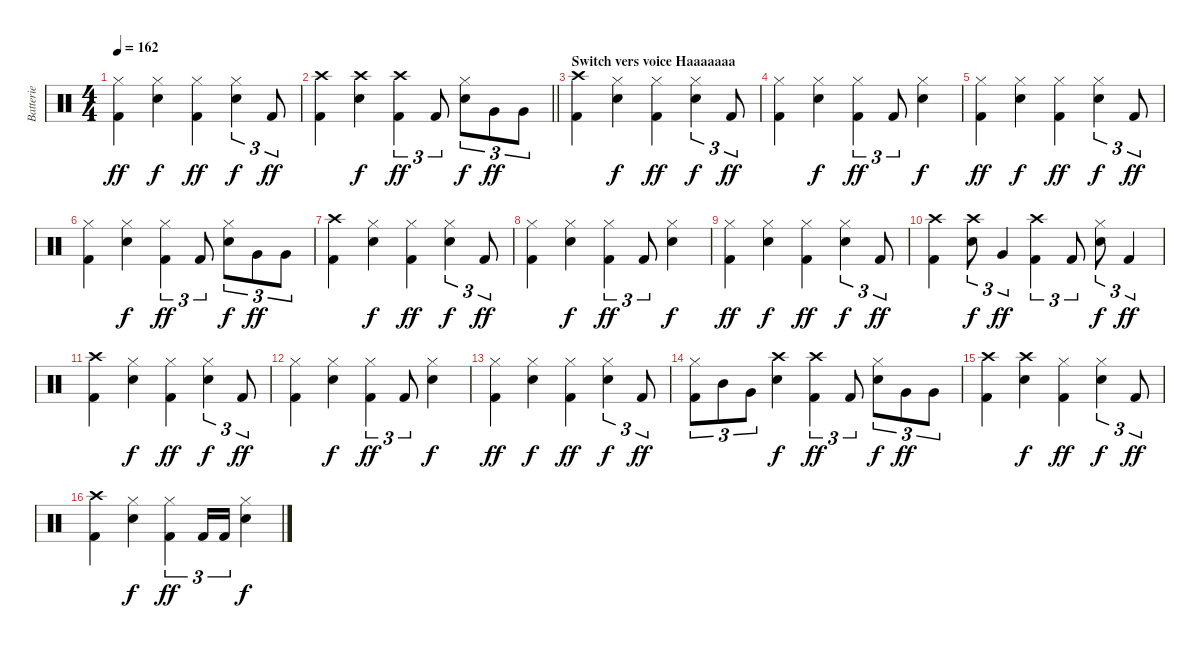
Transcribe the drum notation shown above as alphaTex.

\track ("Batterie" "Batterie") {instrument percussion}
\staff {score}
\articulation defaults
\ts (4 4)
\tempo 162
\clef neutral
\ks c
("Hi-Hat (closed)" "Kick (hit) 2").4{dy ff} ("Hi-Hat (closed)" "Snare (hit) 2").4{dy f} ("Hi-Hat (closed)" "Kick (hit) 2").4{dy ff} ("Hi-Hat (closed)" "Snare (hit) 2").4{tu (3 2) dy f} "Kick (hit) 2".8{tu (3 2) dy ff} |
\barLineRight lightlight
("Crash high (hit)" "Kick (hit) 2").4 ("Crash high (hit)" "Snare (hit) 2").4{dy f} ("Crash high (hit)" "Kick (hit) 2").4{tu (3 2) dy ff} "Kick (hit) 2".8{tu (3 2)} ("Hi-Hat (closed)" "Snare (hit) 2").8{tu (3 2) dy f} "Very Low Tom (hit)".8{tu (3 2) dy ff} "Very Low Tom (hit)".8{tu (3 2)} |
\section ("" "Switch vers voice Haaaaaaa")
("Crash high (hit)" "Kick (hit) 2").4 ("Hi-Hat (closed)" "Snare (hit) 2").4{dy f} ("Hi-Hat (closed)" "Kick (hit) 2").4{dy ff} ("Hi-Hat (closed)" "Snare (hit) 2").4{tu (3 2) dy f} "Kick (hit) 2".8{tu (3 2) dy ff} |
("Hi-Hat (closed)" "Kick (hit) 2").4 ("Hi-Hat (closed)" "Snare (hit) 2").4{dy f} ("Hi-Hat (closed)" "Kick (hit) 2").4{tu (3 2) dy ff} "Kick (hit) 2".8{tu (3 2)} ("Hi-Hat (closed)" "Snare (hit) 2").4{dy f} |
("Hi-Hat (closed)" "Kick (hit) 2").4{dy ff} ("Hi-Hat (closed)" "Snare (hit) 2").4{dy f} ("Hi-Hat (closed)" "Kick (hit) 2").4{dy ff} ("Hi-Hat (closed)" "Snare (hit) 2").4{tu (3 2) dy f} "Kick (hit) 2".8{tu (3 2) dy ff} |
("Hi-Hat (closed)" "Kick (hit) 2").4 ("Hi-Hat (closed)" "Snare (hit) 2").4{dy f} ("Hi-Hat (closed)" "Kick (hit) 2").4{tu (3 2) dy ff} "Kick (hit) 2".8{tu (3 2)} ("Hi-Hat (closed)" "Snare (hit) 2").8{tu (3 2) dy f} "Very Low Tom (hit)".8{tu (3 2) dy ff} "Very Low Tom (hit)".8{tu (3 2)} |
("Crash high (hit)" "Kick (hit) 2").4 ("Hi-Hat (closed)" "Snare (hit) 2").4{dy f} ("Hi-Hat (closed)" "Kick (hit) 2").4{dy ff} ("Hi-Hat (closed)" "Snare (hit) 2").4{tu (3 2) dy f} "Kick (hit) 2".8{tu (3 2) dy ff} |
("Hi-Hat (closed)" "Kick (hit) 2").4 ("Hi-Hat (closed)" "Snare (hit) 2").4{dy f} ("Hi-Hat (closed)" "Kick (hit) 2").4{tu (3 2) dy ff} "Kick (hit) 2".8{tu (3 2)} ("Hi-Hat (closed)" "Snare (hit) 2").4{dy f} |
("Hi-Hat (closed)" "Kick (hit) 2").4{dy ff} ("Hi-Hat (closed)" "Snare (hit) 2").4{dy f} ("Hi-Hat (closed)" "Kick (hit) 2").4{dy ff} ("Hi-Hat (closed)" "Snare (hit) 2").4{tu (3 2) dy f} "Kick (hit) 2".8{tu (3 2) dy ff} |
("Crash high (hit)" "Kick (hit) 2").4 ("Crash high (hit)" "Snare (hit) 2").8{tu (3 2) dy f} "Very Low Tom (hit)".4{tu (3 2) dy ff} ("Crash high (hit)" "Kick (hit) 2").4{tu (3 2)} "Kick (hit) 2".8{tu (3 2)} ("Hi-Hat (closed)" "Snare (hit) 2").8{tu (3 2) dy f} "Kick (hit) 2".4{tu (3 2) dy ff} |
("Crash high (hit)" "Kick (hit) 2").4 ("Hi-Hat (closed)" "Snare (hit) 2").4{dy f} ("Hi-Hat (closed)" "Kick (hit) 2").4{dy ff} ("Hi-Hat (closed)" "Snare (hit) 2").4{tu (3 2) dy f} "Kick (hit) 2".8{tu (3 2) dy ff} |
("Hi-Hat (closed)" "Kick (hit) 2").4 ("Hi-Hat (closed)" "Snare (hit) 2").4{dy f} ("Hi-Hat (closed)" "Kick (hit) 2").4{tu (3 2) dy ff} "Kick (hit) 2".8{tu (3 2)} ("Hi-Hat (closed)" "Snare (hit) 2").4{dy f} |
("Hi-Hat (closed)" "Kick (hit) 2").4{dy ff} ("Hi-Hat (closed)" "Snare (hit) 2").4{dy f} ("Hi-Hat (closed)" "Kick (hit) 2").4{dy ff} ("Hi-Hat (closed)" "Snare (hit) 2").4{tu (3 2) dy f} "Kick (hit) 2".8{tu (3 2) dy ff} |
("Hi-Hat (closed)" "Kick (hit) 2").8{tu (3 2)} "Mid Tom (hit)".8{tu (3 2)} "Very Low Tom (hit)".8{tu (3 2)} ("Crash high (hit)" "Snare (hit) 2").4{dy f} ("Crash high (hit)" "Kick (hit) 2").4{tu (3 2) dy ff} "Kick (hit) 2".8{tu (3 2)} ("Hi-Hat (closed)" "Snare (hit) 2").8{tu (3 2) dy f} "Very Low Tom (hit)".8{tu (3 2) dy ff} "Very Low Tom (hit)".8{tu (3 2)} |
("Crash high (hit)" "Kick (hit) 2").4 ("Crash high (hit)" "Snare (hit) 2").4{dy f} ("Hi-Hat (closed)" "Kick (hit) 2").4{dy ff} ("Hi-Hat (closed)" "Snare (hit) 2").4{tu (3 2) dy f} "Kick (hit) 2".8{tu (3 2) dy ff} |
("Crash high (hit)" "Kick (hit) 2").4 ("Hi-Hat (closed)" "Snare (hit) 2").4{dy f} ("Hi-Hat (closed)" "Kick (hit) 2").4{tu (3 2) dy ff} "Kick (hit) 2".16{tu (3 2)} "Kick (hit) 2".16{tu (3 2)} ("Hi-Hat (closed)" "Snare (hit) 2").4{dy f}
